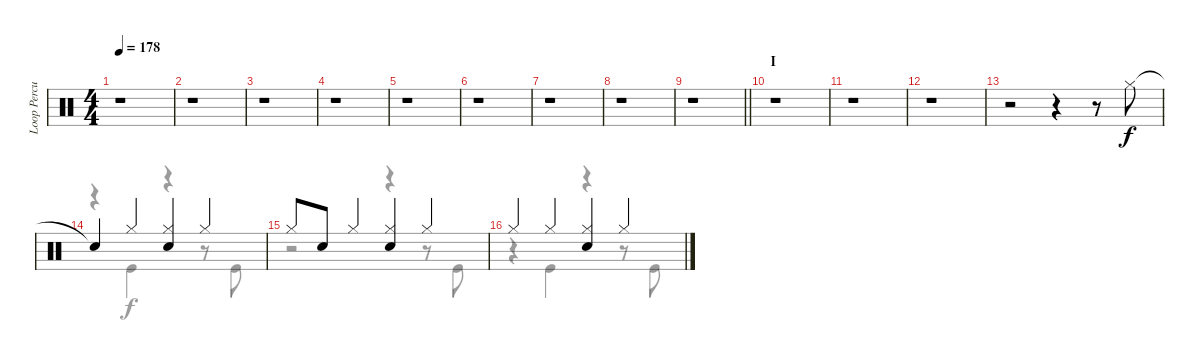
\track ("Loop Percussion" "Loop Percu") {instrument percussion}
\staff {score}
\articulation defaults
\voice
\ts (4 4)
\tempo 178
\clef neutral
\ks c
r.1{dy p} |
r.1 |
r.1 |
r.1 |
r.1 |
r.1 |
r.1 |
r.1 |
\barLineRight lightlight
r.1 |
\section ("" "I")
r.1 |
r.1 |
r.1 |
r.2 r.4 r.8 "Hi-Hat (closed)".8{dy f} |
"Snare (hit)"{t}.4 "Hi-Hat (closed)".4 ("Hi-Hat (closed)" "Electric Snare (hit)").4 "Hi-Hat (closed)".4 |
"Hi-Hat (closed)".8 "Electric Snare (hit)".8 "Hi-Hat (closed)".4 ("Hi-Hat (closed)" "Electric Snare (hit)").4 "Hi-Hat (closed)".4 |
"Hi-Hat (closed)".4 "Hi-Hat (closed)".4 ("Hi-Hat (closed)" "Electric Snare (hit)").4 "Hi-Hat (closed)".4
\voice
\clef neutral
\ottava regular
\simile none
\ks c
|
|
|
|
|
|
|
|
\barLineRight lightlight
|
|
|
|
|
r.4 "Kick (hit)".4 r.4 r.8 "Kick (hit)".8 |
r.2 r.4 r.8 "Kick (hit)".8 |
r.4 "Kick (hit)".4 r.4 r.8 "Kick (hit)".8
